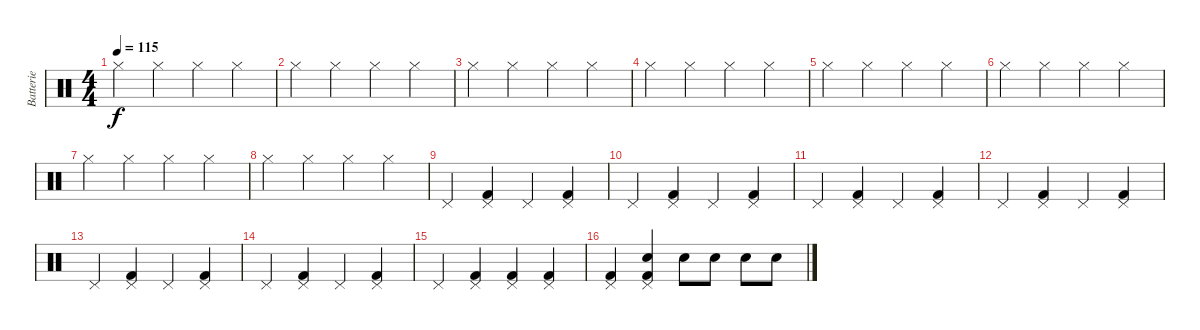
\track ("Batterie" "Batterie") {instrument percussion}
\staff {score}
\articulation defaults
\ts (4 4)
\tempo 115
\clef neutral
\ks c "Hi-Hat (closed)".4{dy f} "Hi-Hat (closed)".4 "Hi-Hat (closed)".4 "Hi-Hat (closed)".4
|
"Hi-Hat (closed)".4 "Hi-Hat (closed)".4 "Hi-Hat (closed)".4 "Hi-Hat (closed)".4 |
"Hi-Hat (closed)".4 "Hi-Hat (closed)".4 "Hi-Hat (closed)".4 "Hi-Hat (closed)".4 |
"Hi-Hat (closed)".4 "Hi-Hat (closed)".4 "Hi-Hat (closed)".4 "Hi-Hat (closed)".4 |
"Hi-Hat (closed)".4 "Hi-Hat (closed)".4 "Hi-Hat (closed)".4 "Hi-Hat (closed)".4 |
"Hi-Hat (closed)".4 "Hi-Hat (closed)".4 "Hi-Hat (closed)".4 "Hi-Hat (closed)".4 |
"Hi-Hat (closed)".4 "Hi-Hat (closed)".4 "Hi-Hat (closed)".4 "Hi-Hat (closed)".4 |
"Hi-Hat (closed)".4 "Hi-Hat (closed)".4 "Hi-Hat (closed)".4 "Hi-Hat (closed)".4 |
"Pedal Hi-Hat (hit)".4 ("Pedal Hi-Hat (hit)" "Kick (hit) 2").4 "Pedal Hi-Hat (hit)".4 ("Pedal Hi-Hat (hit)" "Kick (hit) 2").4 |
"Pedal Hi-Hat (hit)".4 ("Pedal Hi-Hat (hit)" "Kick (hit) 2").4 "Pedal Hi-Hat (hit)".4 ("Pedal Hi-Hat (hit)" "Kick (hit) 2").4 |
"Pedal Hi-Hat (hit)".4 ("Pedal Hi-Hat (hit)" "Kick (hit) 2").4 "Pedal Hi-Hat (hit)".4 ("Pedal Hi-Hat (hit)" "Kick (hit) 2").4 |
"Pedal Hi-Hat (hit)".4 ("Pedal Hi-Hat (hit)" "Kick (hit) 2").4 "Pedal Hi-Hat (hit)".4 ("Pedal Hi-Hat (hit)" "Kick (hit) 2").4 |
"Pedal Hi-Hat (hit)".4 ("Pedal Hi-Hat (hit)" "Kick (hit) 2").4 "Pedal Hi-Hat (hit)".4 ("Pedal Hi-Hat (hit)" "Kick (hit) 2").4 |
"Pedal Hi-Hat (hit)".4 ("Pedal Hi-Hat (hit)" "Kick (hit) 2").4 "Pedal Hi-Hat (hit)".4 ("Pedal Hi-Hat (hit)" "Kick (hit) 2").4 |
"Pedal Hi-Hat (hit)".4 ("Pedal Hi-Hat (hit)" "Kick (hit) 2").4 ("Pedal Hi-Hat (hit)" "Kick (hit) 2").4 ("Pedal Hi-Hat (hit)" "Kick (hit) 2").4 |
("Pedal Hi-Hat (hit)" "Kick (hit) 2").4 ("Pedal Hi-Hat (hit)" "Snare (hit) 2" "Kick (hit) 2").4 "Snare (hit) 2".8 "Snare (hit) 2".8 "Snare (hit) 2".8 "Snare (hit) 2".8
